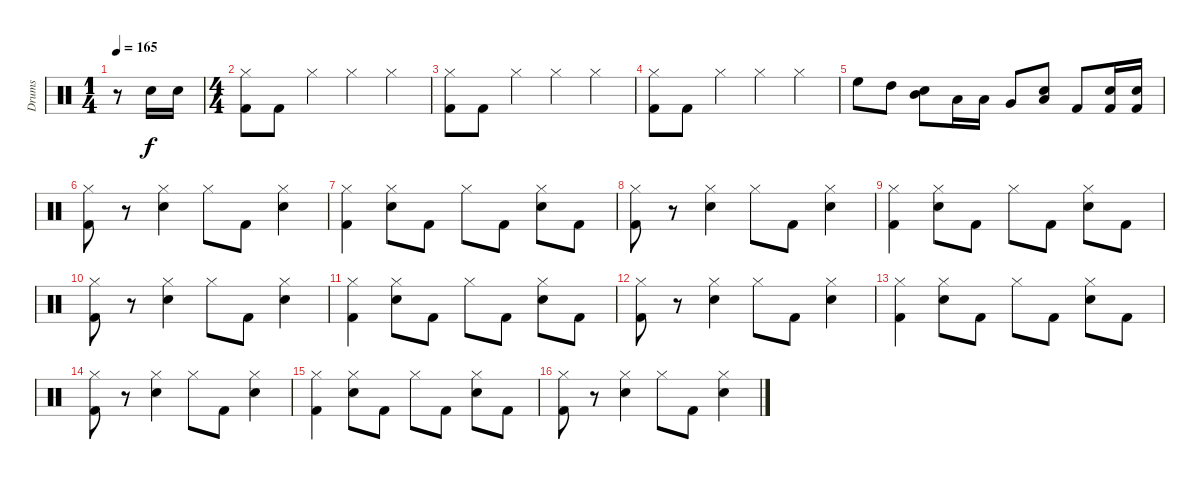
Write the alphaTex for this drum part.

\track ("Drums" "Drums") {instrument percussion}
\staff {score}
\articulation defaults
\ts (1 4)
\tempo 165
\clef neutral
\ks c
r.8{dy f} "Snare (hit) 2".16 "Snare (hit) 2".16 |
\ts (4 4)
("Hi-Hat (closed)" "Kick (hit) 2").8 "Kick (hit) 2".8 "Hi-Hat (closed)".4 "Hi-Hat (closed)".4 "Hi-Hat (closed)".4 |
("Hi-Hat (closed)" "Kick (hit) 2").8 "Kick (hit) 2".8 "Hi-Hat (closed)".4 "Hi-Hat (closed)".4 "Hi-Hat (closed)".4 |
("Hi-Hat (closed)" "Kick (hit) 2").8 "Kick (hit) 2".8 "Hi-Hat (closed)".4 "Hi-Hat (closed)".4 "Hi-Hat (closed)".4 |
"High Floor Tom (hit)".8 "High Tom (hit)".8 ("Mid Tom (hit)" "Snare (hit) 2").8 "Low Tom (hit)".16 "Low Tom (hit)".16 "Very Low Tom (hit)".8 ("Low Floor Tom (hit)" "Snare (hit) 2").8 "Kick (hit) 2".8 ("Kick (hit) 2" "Snare (hit) 2").16 ("Kick (hit) 2" "Snare (hit) 2").16 |
("Hi-Hat (closed)" "Kick (hit) 2").8 r.8 ("Hi-Hat (closed)" "Snare (hit) 2").4 "Hi-Hat (closed)".8 "Kick (hit) 2".8 ("Hi-Hat (closed)" "Snare (hit) 2").4 |
("Hi-Hat (closed)" "Kick (hit) 2").4 ("Hi-Hat (closed)" "Snare (hit) 2").8 "Kick (hit) 2".8 "Hi-Hat (closed)".8 "Kick (hit) 2".8 ("Hi-Hat (closed)" "Snare (hit) 2").8 "Kick (hit) 2".8 |
("Hi-Hat (closed)" "Kick (hit) 2").8 r.8 ("Hi-Hat (closed)" "Snare (hit) 2").4 "Hi-Hat (closed)".8 "Kick (hit) 2".8 ("Hi-Hat (closed)" "Snare (hit) 2").4 |
("Hi-Hat (closed)" "Kick (hit) 2").4 ("Hi-Hat (closed)" "Snare (hit) 2").8 "Kick (hit) 2".8 "Hi-Hat (closed)".8 "Kick (hit) 2".8 ("Hi-Hat (closed)" "Snare (hit) 2").8 "Kick (hit) 2".8 |
("Hi-Hat (closed)" "Kick (hit) 2").8 r.8 ("Hi-Hat (closed)" "Snare (hit) 2").4 "Hi-Hat (closed)".8 "Kick (hit) 2".8 ("Hi-Hat (closed)" "Snare (hit) 2").4 |
("Hi-Hat (closed)" "Kick (hit) 2").4 ("Hi-Hat (closed)" "Snare (hit) 2").8 "Kick (hit) 2".8 "Hi-Hat (closed)".8 "Kick (hit) 2".8 ("Hi-Hat (closed)" "Snare (hit) 2").8 "Kick (hit) 2".8 |
("Hi-Hat (closed)" "Kick (hit) 2").8 r.8 ("Hi-Hat (closed)" "Snare (hit) 2").4 "Hi-Hat (closed)".8 "Kick (hit) 2".8 ("Hi-Hat (closed)" "Snare (hit) 2").4 |
("Hi-Hat (closed)" "Kick (hit) 2").4 ("Hi-Hat (closed)" "Snare (hit) 2").8 "Kick (hit) 2".8 "Hi-Hat (closed)".8 "Kick (hit) 2".8 ("Hi-Hat (closed)" "Snare (hit) 2").8 "Kick (hit) 2".8 |
("Hi-Hat (closed)" "Kick (hit) 2").8 r.8 ("Hi-Hat (closed)" "Snare (hit) 2").4 "Hi-Hat (closed)".8 "Kick (hit) 2".8 ("Hi-Hat (closed)" "Snare (hit) 2").4 |
("Hi-Hat (closed)" "Kick (hit) 2").4 ("Hi-Hat (closed)" "Snare (hit) 2").8 "Kick (hit) 2".8 "Hi-Hat (closed)".8 "Kick (hit) 2".8 ("Hi-Hat (closed)" "Snare (hit) 2").8 "Kick (hit) 2".8 |
("Hi-Hat (closed)" "Kick (hit) 2").8 r.8 ("Hi-Hat (closed)" "Snare (hit) 2").4 "Hi-Hat (closed)".8 "Kick (hit) 2".8 ("Hi-Hat (closed)" "Snare (hit) 2").4
